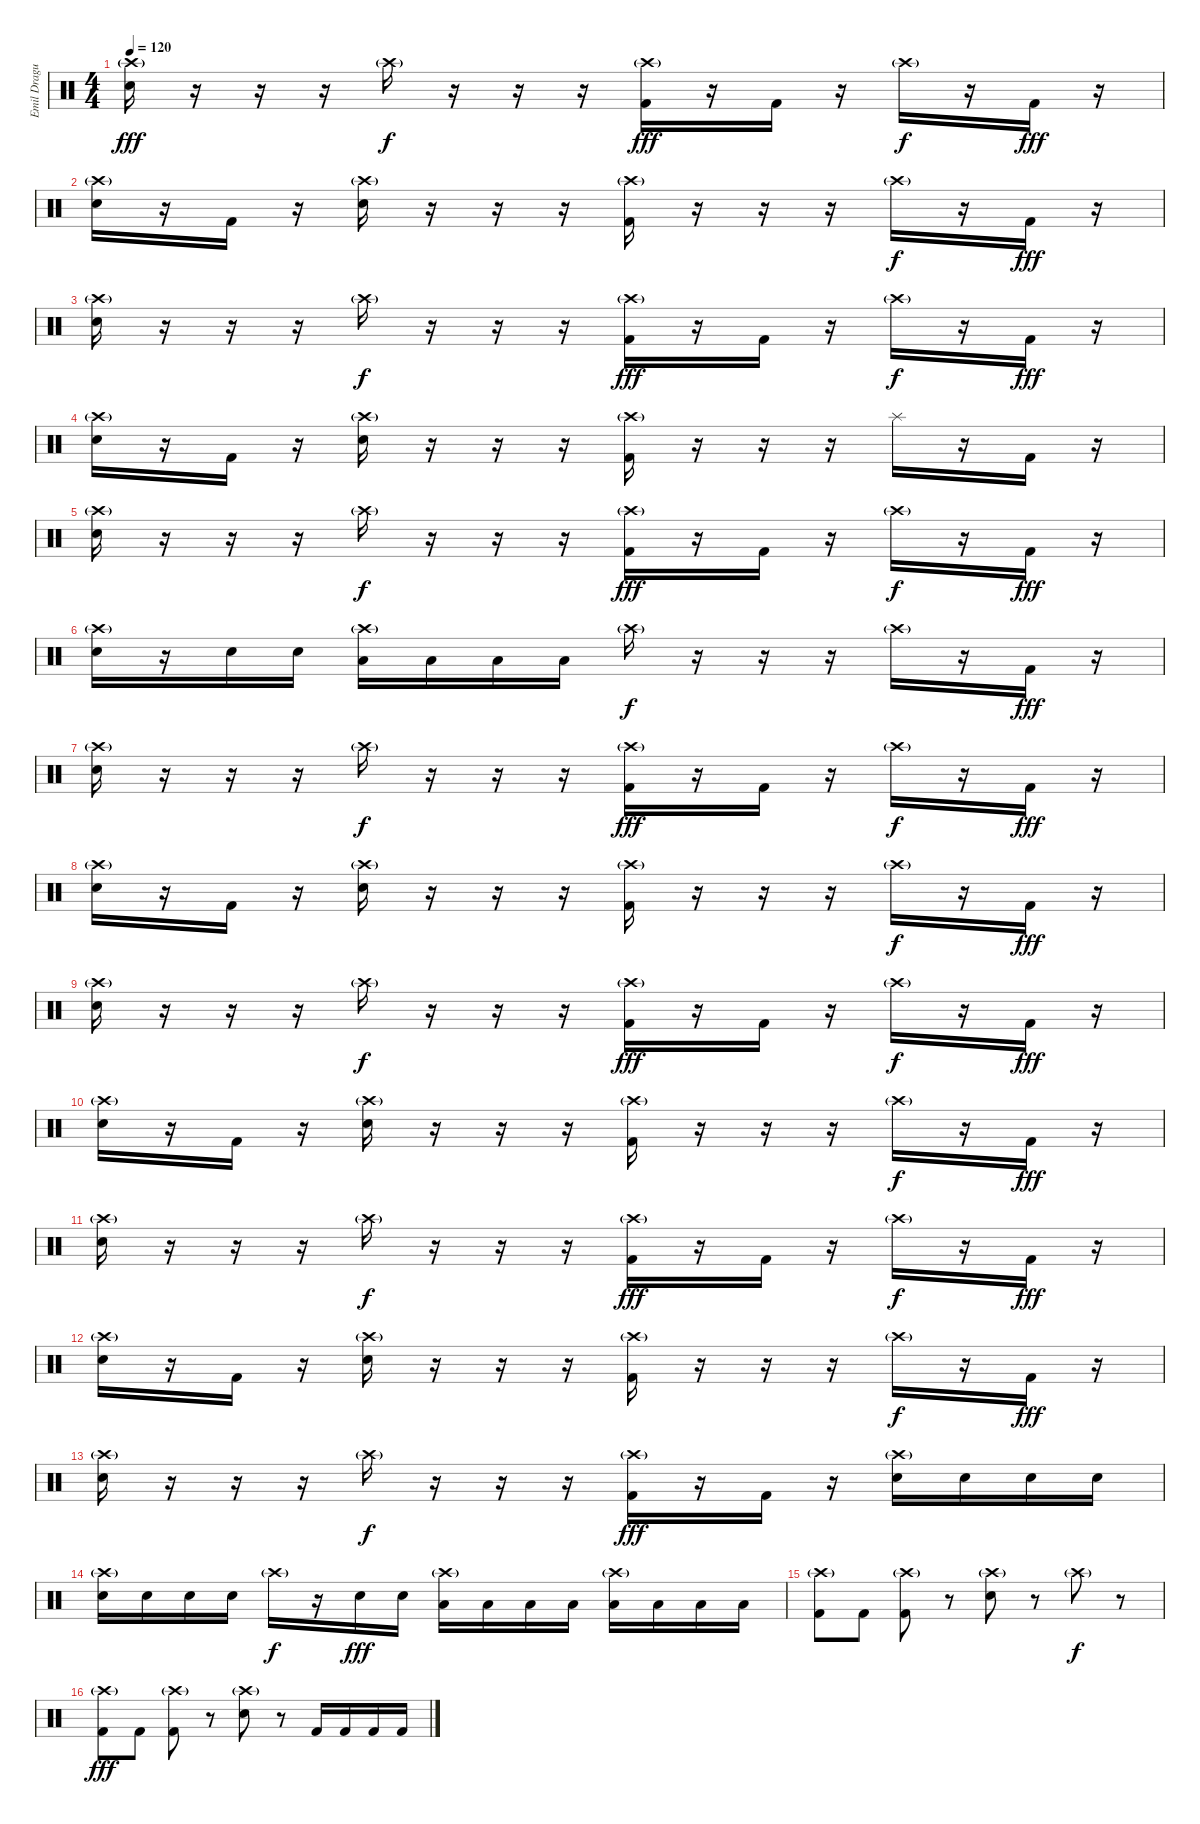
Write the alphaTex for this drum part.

\track ("Emil Dragutinovic" "Emil Dragu") {instrument percussion}
\staff {score}
\articulation defaults
\ts (4 4)
\tempo 120
\clef neutral
\ks c
("Crash high (hit)"{g} "Electric Snare (hit)").16{dy fff} r.16 r.16 r.16 "Crash high (hit)"{g}.16{dy f} r.16 r.16 r.16 ("Crash high (hit)"{g} "Kick (hit) 2").16{dy fff} r.16 "Kick (hit) 2".16 r.16 "Crash high (hit)"{g}.16{dy f} r.16 "Kick (hit) 2".16{dy fff} r.16 |
("Crash high (hit)"{g} "Electric Snare (hit)").16 r.16 "Kick (hit) 2".16 r.16 ("Crash high (hit)"{g} "Electric Snare (hit)").16 r.16 r.16 r.16 ("Crash high (hit)"{g} "Kick (hit) 2").16 r.16 r.16 r.16 "Crash high (hit)"{g}.16{dy f} r.16 "Kick (hit) 2".16{dy fff} r.16 |
("Crash high (hit)"{g} "Electric Snare (hit)").16 r.16 r.16 r.16 "Crash high (hit)"{g}.16{dy f} r.16 r.16 r.16 ("Crash high (hit)"{g} "Kick (hit) 2").16{dy fff} r.16 "Kick (hit) 2".16 r.16 "Crash high (hit)"{g}.16{dy f} r.16 "Kick (hit) 2".16{dy fff} r.16 |
("Crash high (hit)"{g} "Electric Snare (hit)").16 r.16 "Kick (hit) 2".16 r.16 ("Crash high (hit)"{g} "Electric Snare (hit)").16 r.16 r.16 r.16 ("Crash high (hit)"{g} "Kick (hit) 2").16 r.16 r.16 r.16 "Splash (hit)".16 r.16 "Kick (hit) 2".16 r.16 |
("Crash high (hit)"{g} "Electric Snare (hit)").16 r.16 r.16 r.16 "Crash high (hit)"{g}.16{dy f} r.16 r.16 r.16 ("Crash high (hit)"{g} "Kick (hit) 2").16{dy fff} r.16 "Kick (hit) 2".16 r.16 "Crash high (hit)"{g}.16{dy f} r.16 "Kick (hit) 2".16{dy fff} r.16 |
("Crash high (hit)"{g} "Electric Snare (hit)").16 r.16 "Electric Snare (hit)".16 "Electric Snare (hit)".16 ("Crash high (hit)"{g} "Low Tom (hit)").16 "Low Tom (hit)".16 "Low Floor Tom (hit)".16 "Low Floor Tom (hit)".16 "Crash high (hit)"{g}.16{dy f} r.16 r.16 r.16 "Crash high (hit)"{g}.16 r.16 "Kick (hit) 2".16{dy fff} r.16 |
("Crash high (hit)"{g} "Electric Snare (hit)").16 r.16 r.16 r.16 "Crash high (hit)"{g}.16{dy f} r.16 r.16 r.16 ("Crash high (hit)"{g} "Kick (hit) 2").16{dy fff} r.16 "Kick (hit) 2".16 r.16 "Crash high (hit)"{g}.16{dy f} r.16 "Kick (hit) 2".16{dy fff} r.16 |
("Crash high (hit)"{g} "Electric Snare (hit)").16 r.16 "Kick (hit) 2".16 r.16 ("Crash high (hit)"{g} "Electric Snare (hit)").16 r.16 r.16 r.16 ("Crash high (hit)"{g} "Kick (hit) 2").16 r.16 r.16 r.16 "Crash high (hit)"{g}.16{dy f} r.16 "Kick (hit) 2".16{dy fff} r.16 |
("Crash high (hit)"{g} "Electric Snare (hit)").16 r.16 r.16 r.16 "Crash high (hit)"{g}.16{dy f} r.16 r.16 r.16 ("Crash high (hit)"{g} "Kick (hit) 2").16{dy fff} r.16 "Kick (hit) 2".16 r.16 "Crash high (hit)"{g}.16{dy f} r.16 "Kick (hit) 2".16{dy fff} r.16 |
("Crash high (hit)"{g} "Electric Snare (hit)").16 r.16 "Kick (hit) 2".16 r.16 ("Crash high (hit)"{g} "Electric Snare (hit)").16 r.16 r.16 r.16 ("Crash high (hit)"{g} "Kick (hit) 2").16 r.16 r.16 r.16 "Crash high (hit)"{g}.16{dy f} r.16 "Kick (hit) 2".16{dy fff} r.16 |
("Crash high (hit)"{g} "Electric Snare (hit)").16 r.16 r.16 r.16 "Crash high (hit)"{g}.16{dy f} r.16 r.16 r.16 ("Crash high (hit)"{g} "Kick (hit) 2").16{dy fff} r.16 "Kick (hit) 2".16 r.16 "Crash high (hit)"{g}.16{dy f} r.16 "Kick (hit) 2".16{dy fff} r.16 |
("Crash high (hit)"{g} "Electric Snare (hit)").16 r.16 "Kick (hit) 2".16 r.16 ("Crash high (hit)"{g} "Electric Snare (hit)").16 r.16 r.16 r.16 ("Crash high (hit)"{g} "Kick (hit) 2").16 r.16 r.16 r.16 "Crash high (hit)"{g}.16{dy f} r.16 "Kick (hit) 2".16{dy fff} r.16 |
("Crash high (hit)"{g} "Electric Snare (hit)").16 r.16 r.16 r.16 "Crash high (hit)"{g}.16{dy f} r.16 r.16 r.16 ("Crash high (hit)"{g} "Kick (hit) 2").16{dy fff} r.16 "Kick (hit) 2".16 r.16 ("Crash high (hit)"{g} "Electric Snare (hit)").16 "Electric Snare (hit)".16 "Electric Snare (hit)".16 "Electric Snare (hit)".16 |
("Crash high (hit)"{g} "Electric Snare (hit)").16 "Electric Snare (hit)".16 "Electric Snare (hit)".16 "Electric Snare (hit)".16 "Crash high (hit)"{g}.16{dy f} r.16 "Electric Snare (hit)".16{dy fff} "Electric Snare (hit)".16 ("Crash high (hit)"{g} "Low Tom (hit)").16 "Low Tom (hit)".16 "Low Tom (hit)".16 "Low Tom (hit)".16 ("Crash high (hit)"{g} "Low Floor Tom (hit)").16 "Low Floor Tom (hit)".16 "Low Floor Tom (hit)".16 "Low Floor Tom (hit)".16 |
("Crash high (hit)"{g} "Kick (hit) 2").8 "Kick (hit) 2".8 ("Crash high (hit)"{g} "Kick (hit) 2").8 r.8 ("Crash high (hit)"{g} "Electric Snare (hit)").8 r.8 "Crash high (hit)"{g}.8{dy f} r.8 |
("Crash high (hit)"{g} "Kick (hit) 2").8{dy fff} "Kick (hit) 2".8 ("Crash high (hit)"{g} "Kick (hit) 2").8 r.8 ("Crash high (hit)"{g} "Electric Snare (hit)").8 r.8 "Kick (hit) 2".16 "Kick (hit) 2".16 "Kick (hit) 2".16 "Kick (hit) 2".16
